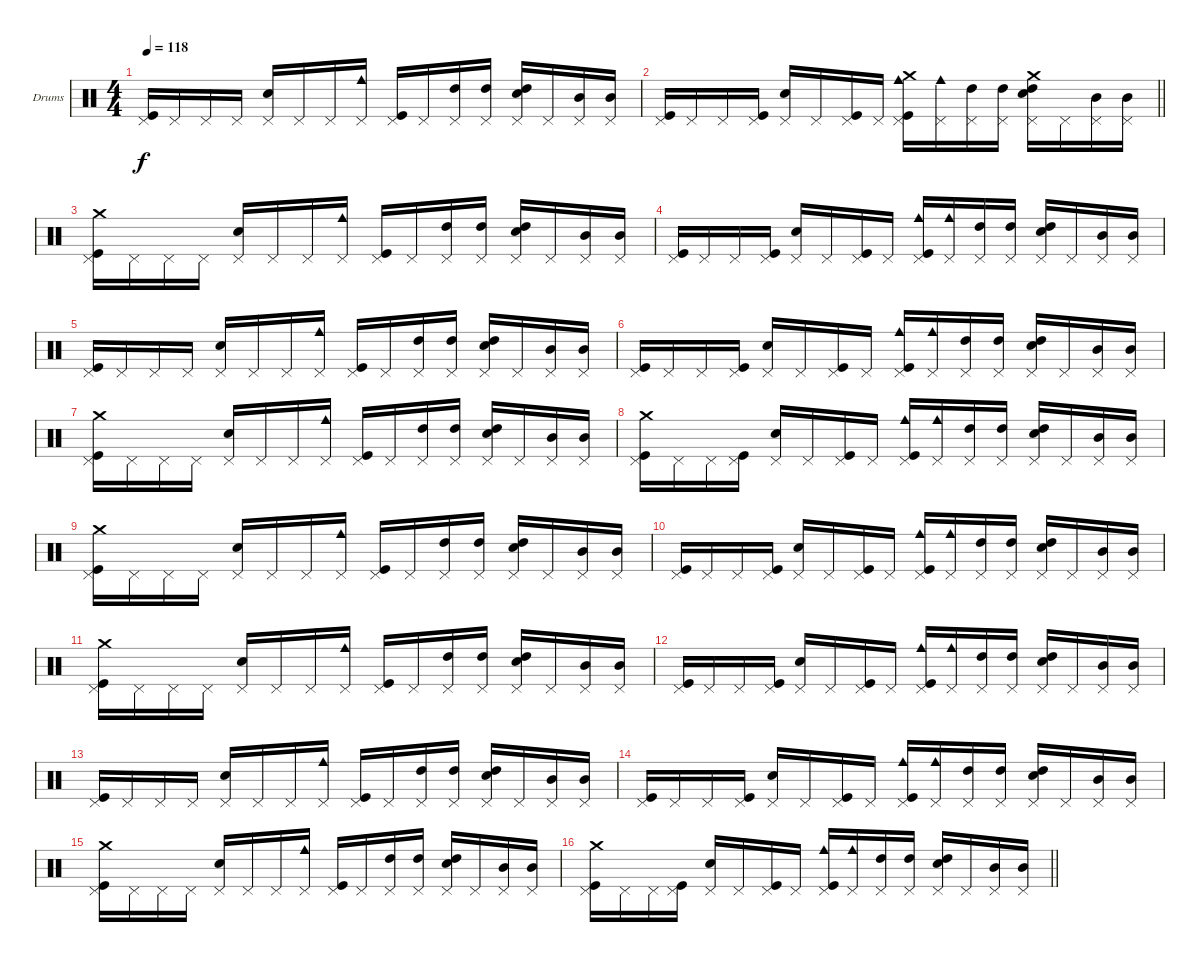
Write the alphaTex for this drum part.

\bracketExtendMode groupsimilarinstruments
\firstSystemTrackNameOrientation horizontal
\otherSystemsTrackNameOrientation horizontal
\track ("Уданые" "Drums") {instrument percussion}
\staff {score}
\articulation defaults
\ts (4 4)
\tempo 118
\clef neutral
\ks c
("Pedal Hi-Hat (hit)" "Kick (hit)").16{dy f} "Pedal Hi-Hat (hit)".16 "Pedal Hi-Hat (hit)".16 "Pedal Hi-Hat (hit)".16 ("Pedal Hi-Hat (hit)" "Snare (hit) 2").16 "Pedal Hi-Hat (hit)".16 "Pedal Hi-Hat (hit)".16 ("Pedal Hi-Hat (hit)" "Cowbell medium (hit)").16 ("Pedal Hi-Hat (hit)" "Kick (hit)").16 "Pedal Hi-Hat (hit)".16 ("Pedal Hi-Hat (hit)" "High Tom (hit)").16 ("Pedal Hi-Hat (hit)" "High Tom (hit)").16 ("Pedal Hi-Hat (hit)" "High Tom (hit)" "Snare (hit) 2").16 "Pedal Hi-Hat (hit)".16 ("Pedal Hi-Hat (hit)" "Mid Tom (hit)").16 ("Pedal Hi-Hat (hit)" "Mid Tom (hit)").16 |
\barLineRight lightlight
("Pedal Hi-Hat (hit)" "Kick (hit)").16 "Pedal Hi-Hat (hit)".16 "Pedal Hi-Hat (hit)".16 ("Pedal Hi-Hat (hit)" "Kick (hit)").16 ("Pedal Hi-Hat (hit)" "Snare (hit) 2").16 "Pedal Hi-Hat (hit)".16 ("Pedal Hi-Hat (hit)" "Kick (hit)").16 "Pedal Hi-Hat (hit)".16 ("Pedal Hi-Hat (hit)" "Kick (hit)" "Cowbell medium (hit)" "Crash medium (hit)").16 ("Pedal Hi-Hat (hit)" "Cowbell medium (hit)").16 ("Pedal Hi-Hat (hit)" "High Tom (hit)").16 ("Pedal Hi-Hat (hit)" "High Tom (hit)").16 ("Pedal Hi-Hat (hit)" "High Tom (hit)" "Snare (hit) 2" "Crash medium (hit)").16 "Pedal Hi-Hat (hit)".16 ("Pedal Hi-Hat (hit)" "Mid Tom (hit)").16 ("Pedal Hi-Hat (hit)" "Mid Tom (hit)").16 |
("Pedal Hi-Hat (hit)" "Kick (hit)" "Crash medium (hit)").16 "Pedal Hi-Hat (hit)".16 "Pedal Hi-Hat (hit)".16 "Pedal Hi-Hat (hit)".16 ("Pedal Hi-Hat (hit)" "Snare (hit) 2").16 "Pedal Hi-Hat (hit)".16 "Pedal Hi-Hat (hit)".16 ("Pedal Hi-Hat (hit)" "Cowbell medium (hit)").16 ("Pedal Hi-Hat (hit)" "Kick (hit)").16 "Pedal Hi-Hat (hit)".16 ("Pedal Hi-Hat (hit)" "High Tom (hit)").16 ("Pedal Hi-Hat (hit)" "High Tom (hit)").16 ("Pedal Hi-Hat (hit)" "High Tom (hit)" "Snare (hit) 2").16 "Pedal Hi-Hat (hit)".16 ("Pedal Hi-Hat (hit)" "Mid Tom (hit)").16 ("Pedal Hi-Hat (hit)" "Mid Tom (hit)").16 |
("Pedal Hi-Hat (hit)" "Kick (hit)").16 "Pedal Hi-Hat (hit)".16 "Pedal Hi-Hat (hit)".16 ("Pedal Hi-Hat (hit)" "Kick (hit)").16 ("Pedal Hi-Hat (hit)" "Snare (hit) 2").16 "Pedal Hi-Hat (hit)".16 ("Pedal Hi-Hat (hit)" "Kick (hit)").16 "Pedal Hi-Hat (hit)".16 ("Pedal Hi-Hat (hit)" "Kick (hit)" "Cowbell medium (hit)").16 ("Pedal Hi-Hat (hit)" "Cowbell medium (hit)").16 ("Pedal Hi-Hat (hit)" "High Tom (hit)").16 ("Pedal Hi-Hat (hit)" "High Tom (hit)").16 ("Pedal Hi-Hat (hit)" "High Tom (hit)" "Snare (hit) 2").16 "Pedal Hi-Hat (hit)".16 ("Pedal Hi-Hat (hit)" "Mid Tom (hit)").16 ("Pedal Hi-Hat (hit)" "Mid Tom (hit)").16 |
("Pedal Hi-Hat (hit)" "Kick (hit)").16 "Pedal Hi-Hat (hit)".16 "Pedal Hi-Hat (hit)".16 "Pedal Hi-Hat (hit)".16 ("Pedal Hi-Hat (hit)" "Snare (hit) 2").16 "Pedal Hi-Hat (hit)".16 "Pedal Hi-Hat (hit)".16 ("Pedal Hi-Hat (hit)" "Cowbell medium (hit)").16 ("Pedal Hi-Hat (hit)" "Kick (hit)").16 "Pedal Hi-Hat (hit)".16 ("Pedal Hi-Hat (hit)" "High Tom (hit)").16 ("Pedal Hi-Hat (hit)" "High Tom (hit)").16 ("Pedal Hi-Hat (hit)" "High Tom (hit)" "Snare (hit) 2").16 "Pedal Hi-Hat (hit)".16 ("Pedal Hi-Hat (hit)" "Mid Tom (hit)").16 ("Pedal Hi-Hat (hit)" "Mid Tom (hit)").16 |
("Pedal Hi-Hat (hit)" "Kick (hit)").16 "Pedal Hi-Hat (hit)".16 "Pedal Hi-Hat (hit)".16 ("Pedal Hi-Hat (hit)" "Kick (hit)").16 ("Pedal Hi-Hat (hit)" "Snare (hit) 2").16 "Pedal Hi-Hat (hit)".16 ("Pedal Hi-Hat (hit)" "Kick (hit)").16 "Pedal Hi-Hat (hit)".16 ("Pedal Hi-Hat (hit)" "Kick (hit)" "Cowbell medium (hit)").16 ("Pedal Hi-Hat (hit)" "Cowbell medium (hit)").16 ("Pedal Hi-Hat (hit)" "High Tom (hit)").16 ("Pedal Hi-Hat (hit)" "High Tom (hit)").16 ("Pedal Hi-Hat (hit)" "High Tom (hit)" "Snare (hit) 2").16 "Pedal Hi-Hat (hit)".16 ("Pedal Hi-Hat (hit)" "Mid Tom (hit)").16 ("Pedal Hi-Hat (hit)" "Mid Tom (hit)").16 |
("Pedal Hi-Hat (hit)" "Kick (hit)" "Crash medium (hit)").16 "Pedal Hi-Hat (hit)".16 "Pedal Hi-Hat (hit)".16 "Pedal Hi-Hat (hit)".16 ("Pedal Hi-Hat (hit)" "Snare (hit) 2").16 "Pedal Hi-Hat (hit)".16 "Pedal Hi-Hat (hit)".16 ("Pedal Hi-Hat (hit)" "Cowbell medium (hit)").16 ("Pedal Hi-Hat (hit)" "Kick (hit)").16 "Pedal Hi-Hat (hit)".16 ("Pedal Hi-Hat (hit)" "High Tom (hit)").16 ("Pedal Hi-Hat (hit)" "High Tom (hit)").16 ("Pedal Hi-Hat (hit)" "High Tom (hit)" "Snare (hit) 2").16 "Pedal Hi-Hat (hit)".16 ("Pedal Hi-Hat (hit)" "Mid Tom (hit)").16 ("Pedal Hi-Hat (hit)" "Mid Tom (hit)").16 |
("Pedal Hi-Hat (hit)" "Kick (hit)" "Crash medium (hit)").16 "Pedal Hi-Hat (hit)".16 "Pedal Hi-Hat (hit)".16 ("Pedal Hi-Hat (hit)" "Kick (hit)").16 ("Pedal Hi-Hat (hit)" "Snare (hit) 2").16 "Pedal Hi-Hat (hit)".16 ("Pedal Hi-Hat (hit)" "Kick (hit)").16 "Pedal Hi-Hat (hit)".16 ("Pedal Hi-Hat (hit)" "Kick (hit)" "Cowbell medium (hit)").16 ("Pedal Hi-Hat (hit)" "Cowbell medium (hit)").16 ("Pedal Hi-Hat (hit)" "High Tom (hit)").16 ("Pedal Hi-Hat (hit)" "High Tom (hit)").16 ("Pedal Hi-Hat (hit)" "High Tom (hit)" "Snare (hit) 2").16 "Pedal Hi-Hat (hit)".16 ("Pedal Hi-Hat (hit)" "Mid Tom (hit)").16 ("Pedal Hi-Hat (hit)" "Mid Tom (hit)").16 |
("Pedal Hi-Hat (hit)" "Kick (hit)" "Crash medium (hit)").16 "Pedal Hi-Hat (hit)".16 "Pedal Hi-Hat (hit)".16 "Pedal Hi-Hat (hit)".16 ("Pedal Hi-Hat (hit)" "Snare (hit) 2").16 "Pedal Hi-Hat (hit)".16 "Pedal Hi-Hat (hit)".16 ("Pedal Hi-Hat (hit)" "Cowbell medium (hit)").16 ("Pedal Hi-Hat (hit)" "Kick (hit)").16 "Pedal Hi-Hat (hit)".16 ("Pedal Hi-Hat (hit)" "High Tom (hit)").16 ("Pedal Hi-Hat (hit)" "High Tom (hit)").16 ("Pedal Hi-Hat (hit)" "High Tom (hit)" "Snare (hit) 2").16 "Pedal Hi-Hat (hit)".16 ("Pedal Hi-Hat (hit)" "Mid Tom (hit)").16 ("Pedal Hi-Hat (hit)" "Mid Tom (hit)").16 |
("Pedal Hi-Hat (hit)" "Kick (hit)").16 "Pedal Hi-Hat (hit)".16 "Pedal Hi-Hat (hit)".16 ("Pedal Hi-Hat (hit)" "Kick (hit)").16 ("Pedal Hi-Hat (hit)" "Snare (hit) 2").16 "Pedal Hi-Hat (hit)".16 ("Pedal Hi-Hat (hit)" "Kick (hit)").16 "Pedal Hi-Hat (hit)".16 ("Pedal Hi-Hat (hit)" "Kick (hit)" "Cowbell medium (hit)").16 ("Pedal Hi-Hat (hit)" "Cowbell medium (hit)").16 ("Pedal Hi-Hat (hit)" "High Tom (hit)").16 ("Pedal Hi-Hat (hit)" "High Tom (hit)").16 ("Pedal Hi-Hat (hit)" "High Tom (hit)" "Snare (hit) 2").16 "Pedal Hi-Hat (hit)".16 ("Pedal Hi-Hat (hit)" "Mid Tom (hit)").16 ("Pedal Hi-Hat (hit)" "Mid Tom (hit)").16 |
("Pedal Hi-Hat (hit)" "Kick (hit)" "Crash medium (hit)").16 "Pedal Hi-Hat (hit)".16 "Pedal Hi-Hat (hit)".16 "Pedal Hi-Hat (hit)".16 ("Pedal Hi-Hat (hit)" "Snare (hit) 2").16 "Pedal Hi-Hat (hit)".16 "Pedal Hi-Hat (hit)".16 ("Pedal Hi-Hat (hit)" "Cowbell medium (hit)").16 ("Pedal Hi-Hat (hit)" "Kick (hit)").16 "Pedal Hi-Hat (hit)".16 ("Pedal Hi-Hat (hit)" "High Tom (hit)").16 ("Pedal Hi-Hat (hit)" "High Tom (hit)").16 ("Pedal Hi-Hat (hit)" "High Tom (hit)" "Snare (hit) 2").16 "Pedal Hi-Hat (hit)".16 ("Pedal Hi-Hat (hit)" "Mid Tom (hit)").16 ("Pedal Hi-Hat (hit)" "Mid Tom (hit)").16 |
("Pedal Hi-Hat (hit)" "Kick (hit)").16 "Pedal Hi-Hat (hit)".16 "Pedal Hi-Hat (hit)".16 ("Pedal Hi-Hat (hit)" "Kick (hit)").16 ("Pedal Hi-Hat (hit)" "Snare (hit) 2").16 "Pedal Hi-Hat (hit)".16 ("Pedal Hi-Hat (hit)" "Kick (hit)").16 "Pedal Hi-Hat (hit)".16 ("Pedal Hi-Hat (hit)" "Kick (hit)" "Cowbell medium (hit)").16 ("Pedal Hi-Hat (hit)" "Cowbell medium (hit)").16 ("Pedal Hi-Hat (hit)" "High Tom (hit)").16 ("Pedal Hi-Hat (hit)" "High Tom (hit)").16 ("Pedal Hi-Hat (hit)" "High Tom (hit)" "Snare (hit) 2").16 "Pedal Hi-Hat (hit)".16 ("Pedal Hi-Hat (hit)" "Mid Tom (hit)").16 ("Pedal Hi-Hat (hit)" "Mid Tom (hit)").16 |
("Pedal Hi-Hat (hit)" "Kick (hit)").16 "Pedal Hi-Hat (hit)".16 "Pedal Hi-Hat (hit)".16 "Pedal Hi-Hat (hit)".16 ("Pedal Hi-Hat (hit)" "Snare (hit) 2").16 "Pedal Hi-Hat (hit)".16 "Pedal Hi-Hat (hit)".16 ("Pedal Hi-Hat (hit)" "Cowbell medium (hit)").16 ("Pedal Hi-Hat (hit)" "Kick (hit)").16 "Pedal Hi-Hat (hit)".16 ("Pedal Hi-Hat (hit)" "High Tom (hit)").16 ("Pedal Hi-Hat (hit)" "High Tom (hit)").16 ("Pedal Hi-Hat (hit)" "High Tom (hit)" "Snare (hit) 2").16 "Pedal Hi-Hat (hit)".16 ("Pedal Hi-Hat (hit)" "Mid Tom (hit)").16 ("Pedal Hi-Hat (hit)" "Mid Tom (hit)").16 |
("Pedal Hi-Hat (hit)" "Kick (hit)").16 "Pedal Hi-Hat (hit)".16 "Pedal Hi-Hat (hit)".16 ("Pedal Hi-Hat (hit)" "Kick (hit)").16 ("Pedal Hi-Hat (hit)" "Snare (hit) 2").16 "Pedal Hi-Hat (hit)".16 ("Pedal Hi-Hat (hit)" "Kick (hit)").16 "Pedal Hi-Hat (hit)".16 ("Pedal Hi-Hat (hit)" "Kick (hit)" "Cowbell medium (hit)").16 ("Pedal Hi-Hat (hit)" "Cowbell medium (hit)").16 ("Pedal Hi-Hat (hit)" "High Tom (hit)").16 ("Pedal Hi-Hat (hit)" "High Tom (hit)").16 ("Pedal Hi-Hat (hit)" "High Tom (hit)" "Snare (hit) 2").16 "Pedal Hi-Hat (hit)".16 ("Pedal Hi-Hat (hit)" "Mid Tom (hit)").16 ("Pedal Hi-Hat (hit)" "Mid Tom (hit)").16 |
("Pedal Hi-Hat (hit)" "Kick (hit)" "Crash medium (hit)").16 "Pedal Hi-Hat (hit)".16 "Pedal Hi-Hat (hit)".16 "Pedal Hi-Hat (hit)".16 ("Pedal Hi-Hat (hit)" "Snare (hit) 2").16 "Pedal Hi-Hat (hit)".16 "Pedal Hi-Hat (hit)".16 ("Pedal Hi-Hat (hit)" "Cowbell medium (hit)").16 ("Pedal Hi-Hat (hit)" "Kick (hit)").16 "Pedal Hi-Hat (hit)".16 ("Pedal Hi-Hat (hit)" "High Tom (hit)").16 ("Pedal Hi-Hat (hit)" "High Tom (hit)").16 ("Pedal Hi-Hat (hit)" "High Tom (hit)" "Snare (hit) 2").16 "Pedal Hi-Hat (hit)".16 ("Pedal Hi-Hat (hit)" "Mid Tom (hit)").16 ("Pedal Hi-Hat (hit)" "Mid Tom (hit)").16 |
\barLineRight lightlight
("Pedal Hi-Hat (hit)" "Kick (hit)" "Crash medium (hit)").16 "Pedal Hi-Hat (hit)".16 "Pedal Hi-Hat (hit)".16 ("Pedal Hi-Hat (hit)" "Kick (hit)").16 ("Pedal Hi-Hat (hit)" "Snare (hit) 2").16 "Pedal Hi-Hat (hit)".16 ("Pedal Hi-Hat (hit)" "Kick (hit)").16 "Pedal Hi-Hat (hit)".16 ("Pedal Hi-Hat (hit)" "Kick (hit)" "Cowbell medium (hit)").16 ("Pedal Hi-Hat (hit)" "Cowbell medium (hit)").16 ("Pedal Hi-Hat (hit)" "High Tom (hit)").16 ("Pedal Hi-Hat (hit)" "High Tom (hit)").16 ("Pedal Hi-Hat (hit)" "High Tom (hit)" "Snare (hit) 2").16 "Pedal Hi-Hat (hit)".16 ("Pedal Hi-Hat (hit)" "Mid Tom (hit)").16 ("Pedal Hi-Hat (hit)" "Mid Tom (hit)").16
